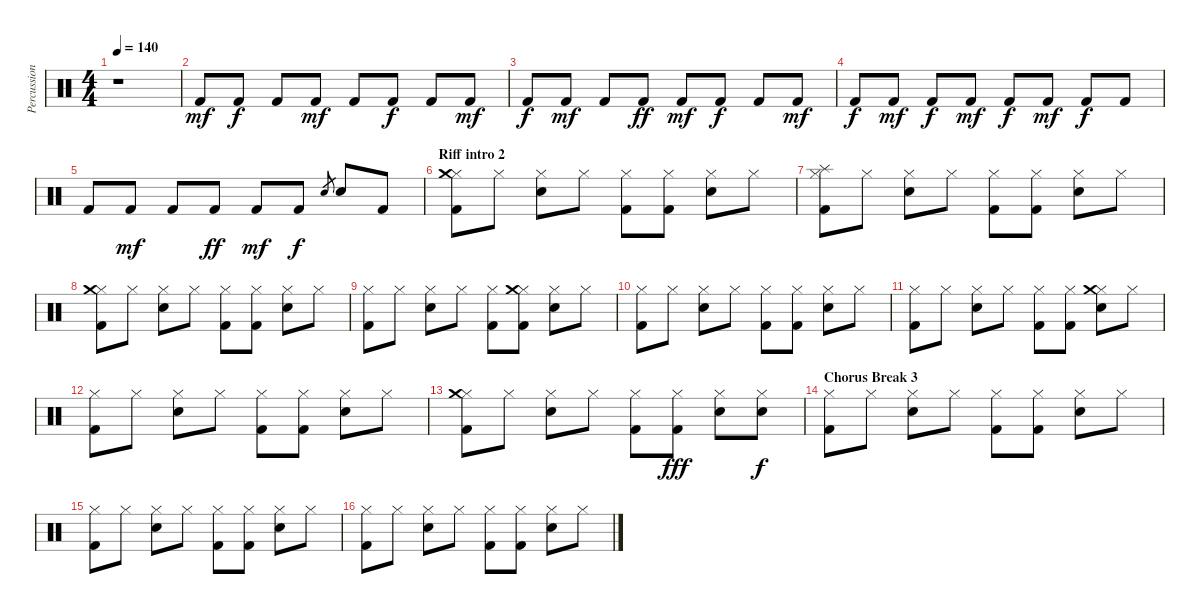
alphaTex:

\track ("Percussions" "Percussion") {instrument percussion}
\staff {score}
\articulation defaults
\ts (4 4)
\tempo 140
\clef neutral
\ks c
r.1{dy f} |
"Kick (hit) 2".8{dy mf} "Kick (hit) 2".8{dy f} "Kick (hit) 2".8 "Kick (hit) 2".8{dy mf} "Kick (hit) 2".8 "Kick (hit) 2".8{dy f} "Kick (hit) 2".8 "Kick (hit) 2".8{dy mf} |
"Kick (hit) 2".8{dy f} "Kick (hit) 2".8{dy mf} "Kick (hit) 2".8 "Kick (hit) 2".8{dy ff} "Kick (hit) 2".8{dy mf} "Kick (hit) 2".8{dy f} "Kick (hit) 2".8 "Kick (hit) 2".8{dy mf} |
"Kick (hit) 2".8{dy f} "Kick (hit) 2".8{dy mf} "Kick (hit) 2".8{dy f} "Kick (hit) 2".8{dy mf} "Kick (hit) 2".8{dy f} "Kick (hit) 2".8{dy mf} "Kick (hit) 2".8{dy f} "Kick (hit) 2".8 |
"Kick (hit) 2".8 "Kick (hit) 2".8{dy mf} "Kick (hit) 2".8 "Kick (hit) 2".8{dy ff} "Kick (hit) 2".8{dy mf} "Kick (hit) 2".8{dy f} "Electric Snare (hit)".8{gr} "Electric Snare (hit)".8 "Kick (hit) 2".8 |
\section ("" "Riff intro 2")
("Hi-Hat (closed)" "Crash medium (hit)" "Kick (hit) 2").8 "Hi-Hat (closed)".8 ("Hi-Hat (closed)" "Electric Snare (hit)").8 "Hi-Hat (closed)".8 ("Hi-Hat (closed)" "Kick (hit) 2").8 ("Hi-Hat (closed)" "Kick (hit) 2").8 ("Hi-Hat (closed)" "Electric Snare (hit)").8 "Hi-Hat (closed)".8 |
("Hi-Hat (closed)" "Splash (hit)" "Kick (hit) 2").8 "Hi-Hat (closed)".8 ("Hi-Hat (closed)" "Electric Snare (hit)").8 "Hi-Hat (closed)".8 ("Hi-Hat (closed)" "Kick (hit) 2").8 ("Hi-Hat (closed)" "Kick (hit) 2").8 ("Hi-Hat (closed)" "Electric Snare (hit)").8 "Hi-Hat (closed)".8 |
("Hi-Hat (closed)" "Crash medium (hit)" "Kick (hit) 2").8 "Hi-Hat (closed)".8 ("Hi-Hat (closed)" "Electric Snare (hit)").8 "Hi-Hat (closed)".8 ("Hi-Hat (closed)" "Kick (hit) 2").8 ("Hi-Hat (closed)" "Kick (hit) 2").8 ("Hi-Hat (closed)" "Electric Snare (hit)").8 "Hi-Hat (closed)".8 |
("Hi-Hat (closed)" "Kick (hit) 2").8 "Hi-Hat (closed)".8 ("Hi-Hat (closed)" "Electric Snare (hit)").8 "Hi-Hat (closed)".8 ("Hi-Hat (closed)" "Kick (hit) 2").8 ("Hi-Hat (closed)" "Crash medium (hit)" "Kick (hit) 2").8 ("Hi-Hat (closed)" "Electric Snare (hit)").8 "Hi-Hat (closed)".8 |
("Hi-Hat (closed)" "Kick (hit) 2").8 "Hi-Hat (closed)".8 ("Hi-Hat (closed)" "Electric Snare (hit)").8 "Hi-Hat (closed)".8 ("Hi-Hat (closed)" "Kick (hit) 2").8 ("Hi-Hat (closed)" "Kick (hit) 2").8 ("Hi-Hat (closed)" "Electric Snare (hit)").8 "Hi-Hat (closed)".8 |
("Hi-Hat (closed)" "Kick (hit) 2").8 "Hi-Hat (closed)".8 ("Hi-Hat (closed)" "Electric Snare (hit)").8 "Hi-Hat (closed)".8 ("Hi-Hat (closed)" "Kick (hit) 2").8 ("Hi-Hat (closed)" "Kick (hit) 2").8 ("Hi-Hat (closed)" "Crash medium (hit)" "Electric Snare (hit)").8 "Hi-Hat (closed)".8 |
("Hi-Hat (closed)" "Kick (hit) 2").8 "Hi-Hat (closed)".8 ("Hi-Hat (closed)" "Electric Snare (hit)").8 "Hi-Hat (closed)".8 ("Hi-Hat (closed)" "Kick (hit) 2").8 ("Hi-Hat (closed)" "Kick (hit) 2").8 ("Hi-Hat (closed)" "Electric Snare (hit)").8 "Hi-Hat (closed)".8 |
("Hi-Hat (closed)" "Crash medium (hit)" "Kick (hit) 2").8 "Hi-Hat (closed)".8 ("Hi-Hat (closed)" "Electric Snare (hit)").8 "Hi-Hat (closed)".8 ("Hi-Hat (closed)" "Kick (hit) 2").8 ("Hi-Hat (closed)" "Kick (hit) 2").8{dy fff} ("Hi-Hat (closed)" "Electric Snare (hit)").8 ("Hi-Hat (closed)" "Electric Snare (hit)").8{dy f} |
\section ("" "Chorus Break 3")
("Hi-Hat (closed)" "Kick (hit) 2").8 "Hi-Hat (closed)".8 ("Hi-Hat (closed)" "Electric Snare (hit)").8 "Hi-Hat (closed)".8 ("Hi-Hat (closed)" "Kick (hit) 2").8 ("Hi-Hat (closed)" "Kick (hit) 2").8 ("Hi-Hat (closed)" "Electric Snare (hit)").8 "Hi-Hat (closed)".8 |
("Hi-Hat (closed)" "Kick (hit) 2").8 "Hi-Hat (closed)".8 ("Hi-Hat (closed)" "Electric Snare (hit)").8 "Hi-Hat (closed)".8 ("Hi-Hat (closed)" "Kick (hit) 2").8 ("Hi-Hat (closed)" "Kick (hit) 2").8 ("Hi-Hat (closed)" "Electric Snare (hit)").8 "Hi-Hat (closed)".8 |
("Hi-Hat (closed)" "Kick (hit) 2").8 "Hi-Hat (closed)".8 ("Hi-Hat (closed)" "Electric Snare (hit)").8 "Hi-Hat (closed)".8 ("Hi-Hat (closed)" "Kick (hit) 2").8 ("Hi-Hat (closed)" "Kick (hit) 2").8 ("Hi-Hat (closed)" "Electric Snare (hit)").8 "Hi-Hat (closed)".8
